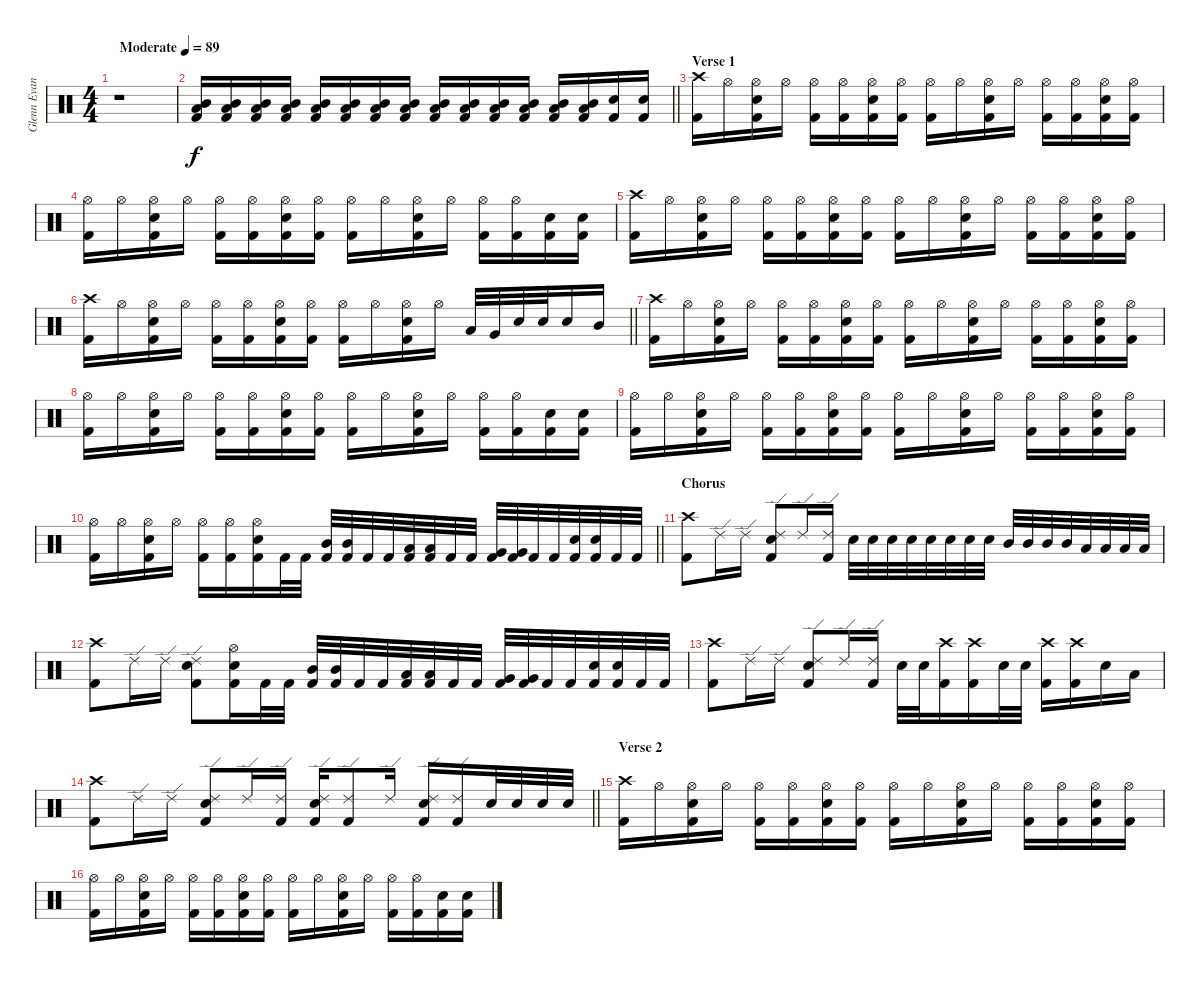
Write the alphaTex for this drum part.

\track ("Glenn Evans (Drums)" "Glenn Evan") {instrument percussion}
\staff {score}
\articulation defaults
\ts (4 4)
\tempo (89 "Moderate")
\clef neutral
\ks c
r.1{dy f} |
\barLineRight lightlight
("Kick (hit) 2" "Mid Tom (hit)" "Low Floor Tom (hit)").16 ("Kick (hit) 2" "Mid Tom (hit)" "Low Floor Tom (hit)").16 ("Kick (hit) 2" "Mid Tom (hit)" "Low Floor Tom (hit)").16 ("Kick (hit) 2" "Mid Tom (hit)" "Low Floor Tom (hit)").16 ("Kick (hit) 2" "Mid Tom (hit)" "Low Floor Tom (hit)").16 ("Kick (hit) 2" "Mid Tom (hit)" "Low Floor Tom (hit)").16 ("Kick (hit) 2" "Mid Tom (hit)" "Low Floor Tom (hit)").16 ("Kick (hit) 2" "Mid Tom (hit)" "Low Floor Tom (hit)").16 ("Kick (hit) 2" "Mid Tom (hit)" "Low Floor Tom (hit)").16 ("Kick (hit) 2" "Mid Tom (hit)" "Low Floor Tom (hit)").16 ("Kick (hit) 2" "Mid Tom (hit)" "Low Floor Tom (hit)").16 ("Kick (hit) 2" "Mid Tom (hit)" "Low Floor Tom (hit)").16 ("Kick (hit) 2" "Mid Tom (hit)" "Low Floor Tom (hit)").16 ("Kick (hit) 2" "Mid Tom (hit)" "Low Floor Tom (hit)").16 ("Kick (hit) 2" "Electric Snare (hit)").16 ("Kick (hit) 2" "Electric Snare (hit)").16 |
\section ("" "Verse 1")
("Kick (hit) 2" "Crash high (hit)").16 "Hi-Hat (open)".16 ("Kick (hit) 2" "Electric Snare (hit)" "Hi-Hat (open)").16 "Hi-Hat (open)".16 ("Kick (hit) 2" "Hi-Hat (open)").16 ("Kick (hit) 2" "Hi-Hat (open)").16 ("Kick (hit) 2" "Electric Snare (hit)" "Hi-Hat (open)").16 ("Kick (hit) 2" "Hi-Hat (open)").16 ("Kick (hit) 2" "Hi-Hat (open)").16 "Hi-Hat (open)".16 ("Kick (hit) 2" "Electric Snare (hit)" "Hi-Hat (open)").16 "Hi-Hat (open)".16 ("Kick (hit) 2" "Hi-Hat (open)").16 ("Kick (hit) 2" "Hi-Hat (open)").16 ("Kick (hit) 2" "Electric Snare (hit)" "Hi-Hat (open)").16 ("Kick (hit) 2" "Hi-Hat (open)").16 |
("Kick (hit) 2" "Hi-Hat (open)").16 "Hi-Hat (open)".16 ("Kick (hit) 2" "Electric Snare (hit)" "Hi-Hat (open)").16 "Hi-Hat (open)".16 ("Kick (hit) 2" "Hi-Hat (open)").16 ("Kick (hit) 2" "Hi-Hat (open)").16 ("Kick (hit) 2" "Electric Snare (hit)" "Hi-Hat (open)").16 ("Kick (hit) 2" "Hi-Hat (open)").16 ("Kick (hit) 2" "Hi-Hat (open)").16 "Hi-Hat (open)".16 ("Kick (hit) 2" "Electric Snare (hit)" "Hi-Hat (open)").16 "Hi-Hat (open)".16 ("Kick (hit) 2" "Hi-Hat (open)").16 ("Kick (hit) 2" "Hi-Hat (open)").16 ("Kick (hit) 2" "Electric Snare (hit)").16 ("Kick (hit) 2" "Electric Snare (hit)").16 |
("Kick (hit) 2" "Crash high (hit)").16 "Hi-Hat (open)".16 ("Kick (hit) 2" "Electric Snare (hit)" "Hi-Hat (open)").16 "Hi-Hat (open)".16 ("Kick (hit) 2" "Hi-Hat (open)").16 ("Kick (hit) 2" "Hi-Hat (open)").16 ("Kick (hit) 2" "Electric Snare (hit)" "Hi-Hat (open)").16 ("Kick (hit) 2" "Hi-Hat (open)").16 ("Kick (hit) 2" "Hi-Hat (open)").16 "Hi-Hat (open)".16 ("Kick (hit) 2" "Electric Snare (hit)" "Hi-Hat (open)").16 "Hi-Hat (open)".16 ("Kick (hit) 2" "Hi-Hat (open)").16 ("Kick (hit) 2" "Hi-Hat (open)").16 ("Kick (hit) 2" "Electric Snare (hit)" "Hi-Hat (open)").16 ("Kick (hit) 2" "Hi-Hat (open)").16 |
\barLineRight lightlight
("Kick (hit) 2" "Crash high (hit)").16 "Hi-Hat (open)".16 ("Kick (hit) 2" "Electric Snare (hit)" "Hi-Hat (open)").16 "Hi-Hat (open)".16 ("Kick (hit) 2" "Hi-Hat (open)").16 ("Kick (hit) 2" "Hi-Hat (open)").16 ("Kick (hit) 2" "Electric Snare (hit)" "Hi-Hat (open)").16 ("Kick (hit) 2" "Hi-Hat (open)").16 ("Kick (hit) 2" "Hi-Hat (open)").16 "Hi-Hat (open)".16 ("Kick (hit) 2" "Electric Snare (hit)" "Hi-Hat (open)").16 "Hi-Hat (open)".16 "Low Tom (hit)".32 "Very Low Tom (hit)".32 "Electric Snare (hit)".32 "Electric Snare (hit)".32 "Electric Snare (hit)".16 "Mid Tom (hit)".16 |
("Kick (hit) 2" "Crash high (hit)").16 "Hi-Hat (open)".16 ("Kick (hit) 2" "Electric Snare (hit)" "Hi-Hat (open)").16 "Hi-Hat (open)".16 ("Kick (hit) 2" "Hi-Hat (open)").16 ("Kick (hit) 2" "Hi-Hat (open)").16 ("Kick (hit) 2" "Electric Snare (hit)" "Hi-Hat (open)").16 ("Kick (hit) 2" "Hi-Hat (open)").16 ("Kick (hit) 2" "Hi-Hat (open)").16 "Hi-Hat (open)".16 ("Kick (hit) 2" "Electric Snare (hit)" "Hi-Hat (open)").16 "Hi-Hat (open)".16 ("Kick (hit) 2" "Hi-Hat (open)").16 ("Kick (hit) 2" "Hi-Hat (open)").16 ("Kick (hit) 2" "Electric Snare (hit)" "Hi-Hat (open)").16 ("Kick (hit) 2" "Hi-Hat (open)").16 |
("Kick (hit) 2" "Hi-Hat (open)").16 "Hi-Hat (open)".16 ("Kick (hit) 2" "Electric Snare (hit)" "Hi-Hat (open)").16 "Hi-Hat (open)".16 ("Kick (hit) 2" "Hi-Hat (open)").16 ("Kick (hit) 2" "Hi-Hat (open)").16 ("Kick (hit) 2" "Electric Snare (hit)" "Hi-Hat (open)").16 ("Kick (hit) 2" "Hi-Hat (open)").16 ("Kick (hit) 2" "Hi-Hat (open)").16 "Hi-Hat (open)".16 ("Kick (hit) 2" "Electric Snare (hit)" "Hi-Hat (open)").16 "Hi-Hat (open)".16 ("Kick (hit) 2" "Hi-Hat (open)").16 ("Kick (hit) 2" "Hi-Hat (open)").16 ("Kick (hit) 2" "Electric Snare (hit)").16 ("Kick (hit) 2" "Electric Snare (hit)").16 |
("Kick (hit) 2" "Hi-Hat (open)").16 "Hi-Hat (open)".16 ("Kick (hit) 2" "Electric Snare (hit)" "Hi-Hat (open)").16 "Hi-Hat (open)".16 ("Kick (hit) 2" "Hi-Hat (open)").16 ("Kick (hit) 2" "Hi-Hat (open)").16 ("Kick (hit) 2" "Electric Snare (hit)" "Hi-Hat (open)").16 ("Kick (hit) 2" "Hi-Hat (open)").16 ("Kick (hit) 2" "Hi-Hat (open)").16 "Hi-Hat (open)".16 ("Kick (hit) 2" "Electric Snare (hit)" "Hi-Hat (open)").16 "Hi-Hat (open)".16 ("Kick (hit) 2" "Hi-Hat (open)").16 ("Kick (hit) 2" "Hi-Hat (open)").16 ("Kick (hit) 2" "Electric Snare (hit)" "Hi-Hat (open)").16 ("Kick (hit) 2" "Hi-Hat (open)").16 |
\barLineRight lightlight
("Kick (hit) 2" "Hi-Hat (open)").16 "Hi-Hat (open)".16 ("Kick (hit) 2" "Electric Snare (hit)" "Hi-Hat (open)").16 "Hi-Hat (open)".16 ("Kick (hit) 2" "Hi-Hat (open)").16 ("Kick (hit) 2" "Hi-Hat (open)").16 ("Kick (hit) 2" "Electric Snare (hit)" "Hi-Hat (open)").16 "Kick (hit) 2".32 "Kick (hit) 2".32 ("Kick (hit) 2" "Mid Tom (hit)").32 ("Kick (hit) 2" "Mid Tom (hit)").32 "Kick (hit) 2".32 "Kick (hit) 2".32 ("Kick (hit) 2" "Low Tom (hit)").32 ("Kick (hit) 2" "Low Tom (hit)").32 "Kick (hit) 2".32 "Kick (hit) 2".32 ("Kick (hit) 2" "Very Low Tom (hit)").32 ("Kick (hit) 2" "Very Low Tom (hit)").32 "Kick (hit) 2".32 "Kick (hit) 2".32 ("Kick (hit) 2" "Electric Snare (hit)").32 ("Kick (hit) 2" "Electric Snare (hit)").32 "Kick (hit) 2".32 "Kick (hit) 2".32 |
\section ("" "Chorus")
("Kick (hit) 2" "Crash high (hit)").8 "Ride (edge) 2".16 "Ride (edge) 2".16 ("Kick (hit) 2" "Electric Snare (hit)" "Ride (edge) 2").8 "Ride (edge) 2".16 ("Kick (hit) 2" "Ride (edge) 2").16 "Electric Snare (hit)".32 "Electric Snare (hit)".32 "Electric Snare (hit)".32 "Electric Snare (hit)".32 "Electric Snare (hit)".32 "Electric Snare (hit)".32 "Electric Snare (hit)".32 "Electric Snare (hit)".32 "Mid Tom (hit)".32 "Mid Tom (hit)".32 "Mid Tom (hit)".32 "Mid Tom (hit)".32 "Low Tom (hit)".32 "Low Tom (hit)".32 "Low Tom (hit)".32 "Low Tom (hit)".32 |
("Kick (hit) 2" "Crash high (hit)").8 "Ride (edge) 2".16 "Ride (edge) 2".16 ("Kick (hit) 2" "Electric Snare (hit)" "Ride (edge) 2").8 ("Kick (hit) 2" "Electric Snare (hit)" "Hi-Hat (open)").16 "Kick (hit) 2".32 "Kick (hit) 2".32 ("Kick (hit) 2" "Mid Tom (hit)").32 ("Kick (hit) 2" "Mid Tom (hit)").32 "Kick (hit) 2".32 "Kick (hit) 2".32 ("Kick (hit) 2" "Low Tom (hit)").32 ("Kick (hit) 2" "Low Tom (hit)").32 "Kick (hit) 2".32 "Kick (hit) 2".32 ("Kick (hit) 2" "Very Low Tom (hit)").32 ("Kick (hit) 2" "Very Low Tom (hit)").32 "Kick (hit) 2".32 "Kick (hit) 2".32 ("Kick (hit) 2" "Electric Snare (hit)").32 ("Kick (hit) 2" "Electric Snare (hit)").32 "Kick (hit) 2".32 "Kick (hit) 2".32 |
("Kick (hit) 2" "Crash high (hit)").8 "Ride (edge) 2".16 "Ride (edge) 2".16 ("Kick (hit) 2" "Electric Snare (hit)" "Ride (edge) 2").8 "Ride (edge) 2".16 ("Kick (hit) 2" "Ride (edge) 2").16 "Electric Snare (hit)".32 "Electric Snare (hit)".32 ("Kick (hit) 2" "Crash high (hit)").16 ("Kick (hit) 2" "Crash high (hit)").16 "Electric Snare (hit)".32 "Electric Snare (hit)".32 ("Kick (hit) 2" "Crash high (hit)").16 ("Kick (hit) 2" "Crash high (hit)").16 "Electric Snare (hit)".16 "Low Tom (hit)".16 |
\barLineRight lightlight
("Kick (hit) 2" "Crash high (hit)").8 "Ride (edge) 2".16 "Ride (edge) 2".16 ("Kick (hit) 2" "Electric Snare (hit)" "Ride (edge) 2").8 "Ride (edge) 2".16 ("Kick (hit) 2" "Ride (edge) 2").16 ("Kick (hit) 2" "Electric Snare (hit)" "Ride (edge) 2").16 ("Kick (hit) 2" "Ride (edge) 2").8 "Ride (edge) 2".16 ("Kick (hit) 2" "Electric Snare (hit)" "Ride (edge) 2").16 ("Kick (hit) 2" "Ride (edge) 2").16 "Electric Snare (hit)".32 "Electric Snare (hit)".32 "Electric Snare (hit)".32 "Electric Snare (hit)".32 |
\section ("" "Verse 2")
("Kick (hit) 2" "Crash high (hit)").16 "Hi-Hat (open)".16 ("Kick (hit) 2" "Electric Snare (hit)" "Hi-Hat (open)").16 "Hi-Hat (open)".16 ("Kick (hit) 2" "Hi-Hat (open)").16 ("Kick (hit) 2" "Hi-Hat (open)").16 ("Kick (hit) 2" "Electric Snare (hit)" "Hi-Hat (open)").16 ("Kick (hit) 2" "Hi-Hat (open)").16 ("Kick (hit) 2" "Hi-Hat (open)").16 "Hi-Hat (open)".16 ("Kick (hit) 2" "Electric Snare (hit)" "Hi-Hat (open)").16 "Hi-Hat (open)".16 ("Kick (hit) 2" "Hi-Hat (open)").16 ("Kick (hit) 2" "Hi-Hat (open)").16 ("Kick (hit) 2" "Electric Snare (hit)" "Hi-Hat (open)").16 ("Kick (hit) 2" "Hi-Hat (open)").16 |
("Kick (hit) 2" "Hi-Hat (open)").16 "Hi-Hat (open)".16 ("Kick (hit) 2" "Electric Snare (hit)" "Hi-Hat (open)").16 "Hi-Hat (open)".16 ("Kick (hit) 2" "Hi-Hat (open)").16 ("Kick (hit) 2" "Hi-Hat (open)").16 ("Kick (hit) 2" "Electric Snare (hit)" "Hi-Hat (open)").16 ("Kick (hit) 2" "Hi-Hat (open)").16 ("Kick (hit) 2" "Hi-Hat (open)").16 "Hi-Hat (open)".16 ("Kick (hit) 2" "Electric Snare (hit)" "Hi-Hat (open)").16 "Hi-Hat (open)".16 ("Kick (hit) 2" "Hi-Hat (open)").16 ("Kick (hit) 2" "Hi-Hat (open)").16 ("Kick (hit) 2" "Electric Snare (hit)").16 ("Kick (hit) 2" "Electric Snare (hit)").16
